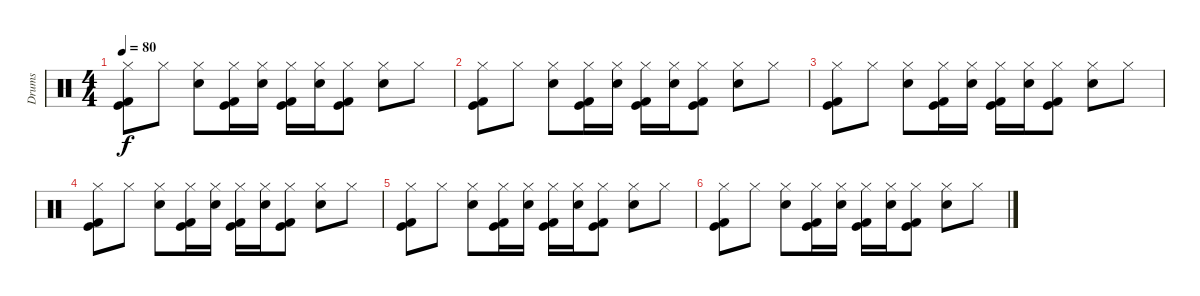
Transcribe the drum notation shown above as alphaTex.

\track ("Drums" "Drums") {instrument percussion}
\staff {score}
\articulation defaults
\ts (4 4)
\tempo 80
\clef neutral
\ks c
("Hi-Hat (closed)" "Kick (hit)" "Kick (hit) 2").8{dy f} "Hi-Hat (closed)".8 ("Hi-Hat (closed)" "Snare (hit) 2").8 ("Hi-Hat (closed)" "Kick (hit)" "Kick (hit) 2").16 ("Hi-Hat (closed)" "Snare (hit) 2").16 ("Hi-Hat (closed)" "Kick (hit)" "Kick (hit) 2").16 ("Hi-Hat (closed)" "Snare (hit) 2").16 ("Hi-Hat (closed)" "Kick (hit)" "Kick (hit) 2").8 ("Hi-Hat (closed)" "Snare (hit) 2").8 "Hi-Hat (closed)".8 |
("Hi-Hat (closed)" "Kick (hit)" "Kick (hit) 2").8 "Hi-Hat (closed)".8 ("Hi-Hat (closed)" "Snare (hit) 2").8 ("Hi-Hat (closed)" "Kick (hit)" "Kick (hit) 2").16 ("Hi-Hat (closed)" "Snare (hit) 2").16 ("Hi-Hat (closed)" "Kick (hit)" "Kick (hit) 2").16 ("Hi-Hat (closed)" "Snare (hit) 2").16 ("Hi-Hat (closed)" "Kick (hit)" "Kick (hit) 2").8 ("Hi-Hat (closed)" "Snare (hit) 2").8 "Hi-Hat (closed)".8 |
("Hi-Hat (closed)" "Kick (hit)" "Kick (hit) 2").8 "Hi-Hat (closed)".8 ("Hi-Hat (closed)" "Snare (hit) 2").8 ("Hi-Hat (closed)" "Kick (hit)" "Kick (hit) 2").16 ("Hi-Hat (closed)" "Snare (hit) 2").16 ("Hi-Hat (closed)" "Kick (hit)" "Kick (hit) 2").16 ("Hi-Hat (closed)" "Snare (hit) 2").16 ("Hi-Hat (closed)" "Kick (hit)" "Kick (hit) 2").8 ("Hi-Hat (closed)" "Snare (hit) 2").8 "Hi-Hat (closed)".8 |
("Hi-Hat (closed)" "Kick (hit)" "Kick (hit) 2").8 "Hi-Hat (closed)".8 ("Hi-Hat (closed)" "Snare (hit) 2").8 ("Hi-Hat (closed)" "Kick (hit)" "Kick (hit) 2").16 ("Hi-Hat (closed)" "Snare (hit) 2").16 ("Hi-Hat (closed)" "Kick (hit)" "Kick (hit) 2").16 ("Hi-Hat (closed)" "Snare (hit) 2").16 ("Hi-Hat (closed)" "Kick (hit)" "Kick (hit) 2").8 ("Hi-Hat (closed)" "Snare (hit) 2").8 "Hi-Hat (closed)".8 |
("Hi-Hat (closed)" "Kick (hit)" "Kick (hit) 2").8 "Hi-Hat (closed)".8 ("Hi-Hat (closed)" "Snare (hit) 2").8 ("Hi-Hat (closed)" "Kick (hit)" "Kick (hit) 2").16 ("Hi-Hat (closed)" "Snare (hit) 2").16 ("Hi-Hat (closed)" "Kick (hit)" "Kick (hit) 2").16 ("Hi-Hat (closed)" "Snare (hit) 2").16 ("Hi-Hat (closed)" "Kick (hit)" "Kick (hit) 2").8 ("Hi-Hat (closed)" "Snare (hit) 2").8 "Hi-Hat (closed)".8 |
("Hi-Hat (closed)" "Kick (hit)" "Kick (hit) 2").8 "Hi-Hat (closed)".8 ("Hi-Hat (closed)" "Snare (hit) 2").8 ("Hi-Hat (closed)" "Kick (hit)" "Kick (hit) 2").16 ("Hi-Hat (closed)" "Snare (hit) 2").16 ("Hi-Hat (closed)" "Kick (hit)" "Kick (hit) 2").16 ("Hi-Hat (closed)" "Snare (hit) 2").16 ("Hi-Hat (closed)" "Kick (hit)" "Kick (hit) 2").8 ("Hi-Hat (closed)" "Snare (hit) 2").8 "Hi-Hat (closed)".8
